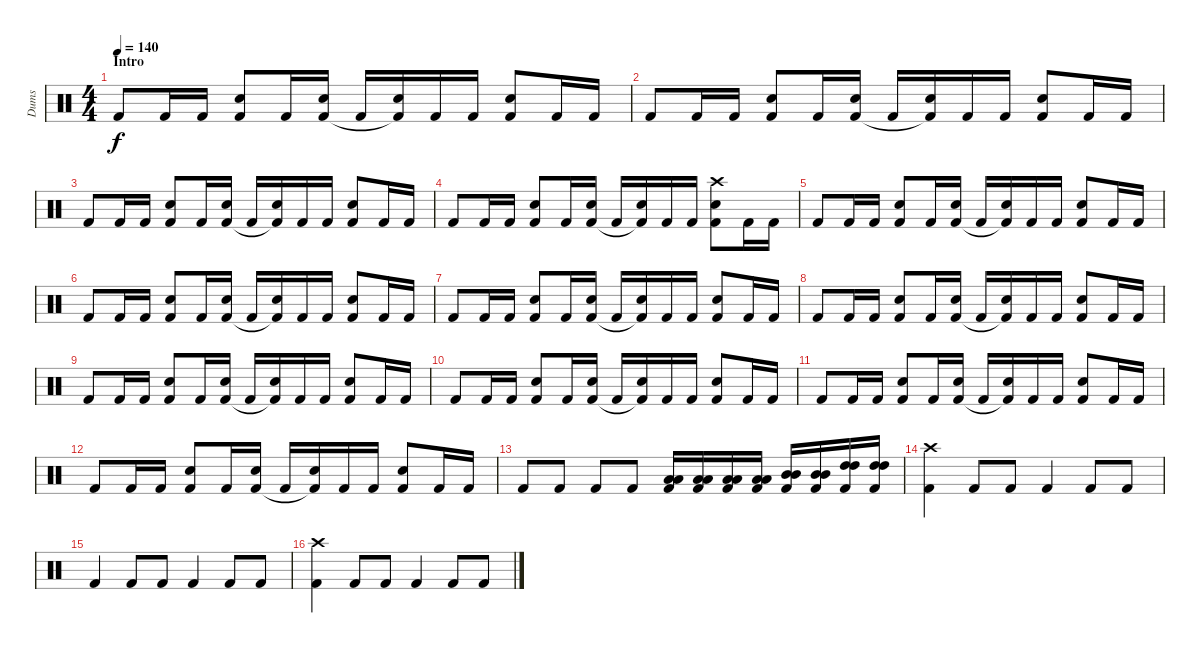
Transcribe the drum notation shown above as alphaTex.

\track ("Dums" "Dums") {instrument percussion}
\staff {score}
\articulation defaults
\ts (4 4)
\section ("" "Intro")
\tempo 140
\clef neutral
\ks c "Kick (hit) 2".8{dy f} "Kick (hit) 2".16 "Kick (hit) 2".16
("Snare (hit) 2" "Kick (hit) 2").8 "Kick (hit) 2".16 ("Snare (hit) 2" "Kick (hit) 2").16 "Kick (hit) 2".16 ("Snare (hit) 2" "Kick (hit) 2"{t}).16 "Kick (hit) 2".16 "Kick (hit) 2".16 ("Snare (hit) 2" "Kick (hit) 2").8 "Kick (hit) 2".16 "Kick (hit) 2".16 |
"Kick (hit) 2".8 "Kick (hit) 2".16 "Kick (hit) 2".16 ("Snare (hit) 2" "Kick (hit) 2").8 "Kick (hit) 2".16 ("Snare (hit) 2" "Kick (hit) 2").16 "Kick (hit) 2".16 ("Snare (hit) 2" "Kick (hit) 2"{t}).16 "Kick (hit) 2".16 "Kick (hit) 2".16 ("Snare (hit) 2" "Kick (hit) 2").8 "Kick (hit) 2".16 "Kick (hit) 2".16 |
"Kick (hit) 2".8 "Kick (hit) 2".16 "Kick (hit) 2".16 ("Snare (hit) 2" "Kick (hit) 2").8 "Kick (hit) 2".16 ("Snare (hit) 2" "Kick (hit) 2").16 "Kick (hit) 2".16 ("Snare (hit) 2" "Kick (hit) 2"{t}).16 "Kick (hit) 2".16 "Kick (hit) 2".16 ("Snare (hit) 2" "Kick (hit) 2").8 "Kick (hit) 2".16 "Kick (hit) 2".16 |
"Kick (hit) 2".8 "Kick (hit) 2".16 "Kick (hit) 2".16 ("Snare (hit) 2" "Kick (hit) 2").8 "Kick (hit) 2".16 ("Snare (hit) 2" "Kick (hit) 2").16 "Kick (hit) 2".16 ("Snare (hit) 2" "Kick (hit) 2"{t}).16 "Kick (hit) 2".16 "Kick (hit) 2".16 ("Crash high (hit)" "Snare (hit) 2" "Kick (hit) 2").8 "Kick (hit) 2".16 "Kick (hit) 2".16 |
"Kick (hit) 2".8 "Kick (hit) 2".16 "Kick (hit) 2".16 ("Snare (hit) 2" "Kick (hit) 2").8 "Kick (hit) 2".16 ("Snare (hit) 2" "Kick (hit) 2").16 "Kick (hit) 2".16 ("Snare (hit) 2" "Kick (hit) 2"{t}).16 "Kick (hit) 2".16 "Kick (hit) 2".16 ("Snare (hit) 2" "Kick (hit) 2").8 "Kick (hit) 2".16 "Kick (hit) 2".16 |
"Kick (hit) 2".8 "Kick (hit) 2".16 "Kick (hit) 2".16 ("Snare (hit) 2" "Kick (hit) 2").8 "Kick (hit) 2".16 ("Snare (hit) 2" "Kick (hit) 2").16 "Kick (hit) 2".16 ("Snare (hit) 2" "Kick (hit) 2"{t}).16 "Kick (hit) 2".16 "Kick (hit) 2".16 ("Snare (hit) 2" "Kick (hit) 2").8 "Kick (hit) 2".16 "Kick (hit) 2".16 |
"Kick (hit) 2".8 "Kick (hit) 2".16 "Kick (hit) 2".16 ("Snare (hit) 2" "Kick (hit) 2").8 "Kick (hit) 2".16 ("Snare (hit) 2" "Kick (hit) 2").16 "Kick (hit) 2".16 ("Snare (hit) 2" "Kick (hit) 2"{t}).16 "Kick (hit) 2".16 "Kick (hit) 2".16 ("Snare (hit) 2" "Kick (hit) 2").8 "Kick (hit) 2".16 "Kick (hit) 2".16 |
"Kick (hit) 2".8 "Kick (hit) 2".16 "Kick (hit) 2".16 ("Snare (hit) 2" "Kick (hit) 2").8 "Kick (hit) 2".16 ("Snare (hit) 2" "Kick (hit) 2").16 "Kick (hit) 2".16 ("Snare (hit) 2" "Kick (hit) 2"{t}).16 "Kick (hit) 2".16 "Kick (hit) 2".16 ("Snare (hit) 2" "Kick (hit) 2").8 "Kick (hit) 2".16 "Kick (hit) 2".16 |
"Kick (hit) 2".8 "Kick (hit) 2".16 "Kick (hit) 2".16 ("Snare (hit) 2" "Kick (hit) 2").8 "Kick (hit) 2".16 ("Snare (hit) 2" "Kick (hit) 2").16 "Kick (hit) 2".16 ("Snare (hit) 2" "Kick (hit) 2"{t}).16 "Kick (hit) 2".16 "Kick (hit) 2".16 ("Snare (hit) 2" "Kick (hit) 2").8 "Kick (hit) 2".16 "Kick (hit) 2".16 |
"Kick (hit) 2".8 "Kick (hit) 2".16 "Kick (hit) 2".16 ("Snare (hit) 2" "Kick (hit) 2").8 "Kick (hit) 2".16 ("Snare (hit) 2" "Kick (hit) 2").16 "Kick (hit) 2".16 ("Snare (hit) 2" "Kick (hit) 2"{t}).16 "Kick (hit) 2".16 "Kick (hit) 2".16 ("Snare (hit) 2" "Kick (hit) 2").8 "Kick (hit) 2".16 "Kick (hit) 2".16 |
"Kick (hit) 2".8 "Kick (hit) 2".16 "Kick (hit) 2".16 ("Snare (hit) 2" "Kick (hit) 2").8 "Kick (hit) 2".16 ("Snare (hit) 2" "Kick (hit) 2").16 "Kick (hit) 2".16 ("Snare (hit) 2" "Kick (hit) 2"{t}).16 "Kick (hit) 2".16 "Kick (hit) 2".16 ("Snare (hit) 2" "Kick (hit) 2").8 "Kick (hit) 2".16 "Kick (hit) 2".16 |
"Kick (hit) 2".8 "Kick (hit) 2".16 "Kick (hit) 2".16 ("Snare (hit) 2" "Kick (hit) 2").8 "Kick (hit) 2".16 ("Snare (hit) 2" "Kick (hit) 2").16 "Kick (hit) 2".16 ("Snare (hit) 2" "Kick (hit) 2"{t}).16 "Kick (hit) 2".16 "Kick (hit) 2".16 ("Snare (hit) 2" "Kick (hit) 2").8 "Kick (hit) 2".16 "Kick (hit) 2".16 |
"Kick (hit) 2".8 "Kick (hit) 2".8 "Kick (hit) 2".8 "Kick (hit) 2".8 ("Low Tom (hit)" "Low Tom (hit)" "Kick (hit) 2").16 ("Low Tom (hit)" "Low Tom (hit)" "Kick (hit) 2").16 ("Low Tom (hit)" "Low Tom (hit)" "Kick (hit) 2").16 ("Low Tom (hit)" "Low Tom (hit)" "Kick (hit) 2").16 ("Mid Tom (hit)" "Mid Tom (hit)" "Kick (hit) 2").16 ("Mid Tom (hit)" "Mid Tom (hit)" "Kick (hit) 2").16 ("High Tom (hit)" "High Tom (hit)" "Kick (hit) 2").16 ("High Tom (hit)" "High Tom (hit)" "Kick (hit) 2").16 |
("Crash high (hit)" "Kick (hit) 2").4 "Kick (hit) 2".8 "Kick (hit) 2".8 "Kick (hit) 2".4 "Kick (hit) 2".8 "Kick (hit) 2".8 |
"Kick (hit) 2".4 "Kick (hit) 2".8 "Kick (hit) 2".8 "Kick (hit) 2".4 "Kick (hit) 2".8 "Kick (hit) 2".8 |
("Crash high (hit)" "Kick (hit) 2").4 "Kick (hit) 2".8 "Kick (hit) 2".8 "Kick (hit) 2".4 "Kick (hit) 2".8 "Kick (hit) 2".8
